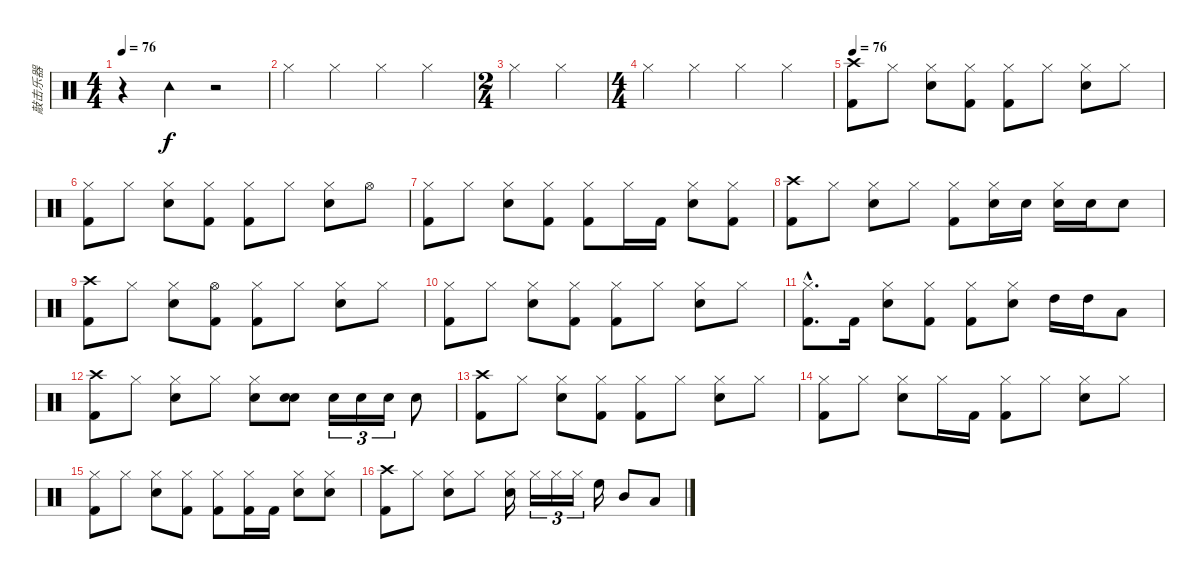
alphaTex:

\track ("敲击乐器" "敲击乐器") {instrument percussion}
\staff {score}
\articulation defaults
\ts (4 4)
\tempo 76
\clef neutral
\ks c
r.4{dy f} "Tambourine (hit)".4 r.2 |
"Hi-Hat (closed)".4 "Hi-Hat (closed)".4 "Hi-Hat (closed)".4 "Hi-Hat (closed)".4 |
\ts (2 4)
"Hi-Hat (closed)".4 "Hi-Hat (closed)".4 |
\ts (4 4)
"Hi-Hat (closed)".4 "Hi-Hat (closed)".4 "Hi-Hat (closed)".4 "Hi-Hat (closed)".4 |
\tempo 76
("Crash high (hit)" "Kick (hit) 2").8 "Hi-Hat (closed)".8 ("Hi-Hat (closed)" "Snare (hit) 2").8 ("Hi-Hat (closed)" "Kick (hit) 2").8 ("Hi-Hat (closed)" "Kick (hit) 2").8 "Hi-Hat (closed)".8 ("Hi-Hat (closed)" "Snare (hit) 2").8 "Hi-Hat (closed)".8 |
("Hi-Hat (closed)" "Kick (hit) 2").8 "Hi-Hat (closed)".8 ("Hi-Hat (closed)" "Snare (hit) 2").8 ("Hi-Hat (closed)" "Kick (hit) 2").8 ("Hi-Hat (closed)" "Kick (hit) 2").8 "Hi-Hat (closed)".8 ("Hi-Hat (closed)" "Snare (hit) 2").8 "Hi-Hat (open)".8 |
("Hi-Hat (closed)" "Kick (hit) 2").8 "Hi-Hat (closed)".8 ("Hi-Hat (closed)" "Snare (hit) 2").8 ("Hi-Hat (closed)" "Kick (hit) 2").8 ("Hi-Hat (closed)" "Kick (hit) 2").8 "Hi-Hat (closed)".16 "Kick (hit) 2".16 ("Hi-Hat (closed)" "Snare (hit) 2").8 ("Hi-Hat (closed)" "Kick (hit) 2").8 |
("Crash high (hit)" "Kick (hit) 2").8 "Hi-Hat (closed)".8 ("Hi-Hat (closed)" "Snare (hit) 2").8 "Hi-Hat (closed)".8 ("Hi-Hat (closed)" "Kick (hit) 2").8 ("Hi-Hat (closed)" "Snare (hit) 2").16 "Snare (hit) 2".16 ("Hi-Hat (closed)" "Snare (hit) 2").16 "Snare (hit) 2".16 "Snare (hit) 2".8 |
("Crash high (hit)" "Kick (hit) 2").8 "Hi-Hat (closed)".8 ("Hi-Hat (closed)" "Snare (hit) 2").8 ("Hi-Hat (open)" "Kick (hit) 2").8 ("Hi-Hat (closed)" "Kick (hit) 2").8 "Hi-Hat (closed)".8 ("Hi-Hat (closed)" "Snare (hit) 2").8 "Hi-Hat (closed)".8 |
("Hi-Hat (closed)" "Kick (hit) 2").8 "Hi-Hat (closed)".8 ("Hi-Hat (closed)" "Snare (hit) 2").8 ("Hi-Hat (closed)" "Kick (hit) 2").8 ("Hi-Hat (closed)" "Kick (hit) 2").8 "Hi-Hat (closed)".8 ("Hi-Hat (closed)" "Snare (hit) 2").8 "Hi-Hat (closed)".8 |
("Hi-Hat (closed)"{hac} "Kick (hit) 2"{hac}).8{d} "Kick (hit) 2".16 ("Hi-Hat (closed)" "Snare (hit) 2").8 ("Hi-Hat (closed)" "Kick (hit) 2").8 ("Hi-Hat (closed)" "Kick (hit) 2").8 ("Hi-Hat (closed)" "Snare (hit) 2").8 "High Tom (hit)".16 "High Tom (hit)".16 "Low Tom (hit)".8 |
("Crash high (hit)" "Kick (hit) 2").8 "Hi-Hat (closed)".8 ("Hi-Hat (closed)" "Snare (hit) 2").8 "Hi-Hat (closed)".8 ("Hi-Hat (closed)" "Snare (hit) 2").8 ("Snare (hit)" "Snare (hit) 2").8 "Snare (hit) 2".16{tu (3 2)} "Snare (hit) 2".16{tu (3 2)} "Snare (hit) 2".16{tu (3 2)} "Snare (hit) 2".8 |
("Crash high (hit)" "Kick (hit) 2").8 "Hi-Hat (closed)".8 ("Hi-Hat (closed)" "Snare (hit) 2").8 ("Hi-Hat (closed)" "Kick (hit) 2").8 ("Hi-Hat (closed)" "Kick (hit) 2").8 "Hi-Hat (closed)".8 ("Hi-Hat (closed)" "Snare (hit) 2").8 "Hi-Hat (closed)".8 |
("Hi-Hat (closed)" "Kick (hit) 2").8 "Hi-Hat (closed)".8 ("Hi-Hat (closed)" "Snare (hit) 2").8 "Hi-Hat (closed)".16 "Kick (hit) 2".16 ("Hi-Hat (closed)" "Kick (hit) 2").8 "Hi-Hat (closed)".8 ("Hi-Hat (closed)" "Snare (hit) 2").8 "Hi-Hat (closed)".8 |
("Hi-Hat (closed)" "Kick (hit) 2").8 "Hi-Hat (closed)".8 ("Hi-Hat (closed)" "Snare (hit) 2").8 ("Hi-Hat (closed)" "Kick (hit) 2").8 ("Hi-Hat (closed)" "Kick (hit) 2").8 ("Hi-Hat (closed)" "Kick (hit) 2").16 "Kick (hit) 2".16 ("Hi-Hat (closed)" "Snare (hit) 2").8 ("Hi-Hat (closed)" "Snare (hit) 2").8 |
("Crash high (hit)" "Kick (hit) 2").8 "Hi-Hat (closed)".8 ("Hi-Hat (closed)" "Snare (hit) 2").8 "Hi-Hat (closed)".8 ("Hi-Hat (closed)" "Snare (hit) 2").16 "Hi-Hat (closed)".16{tu (3 2)} "Hi-Hat (closed)".16{tu (3 2)} "Hi-Hat (closed)".16{tu (3 2)} "High Floor Tom (hit)".16 "Mid Tom (hit)".8 "Low Tom (hit)".8
